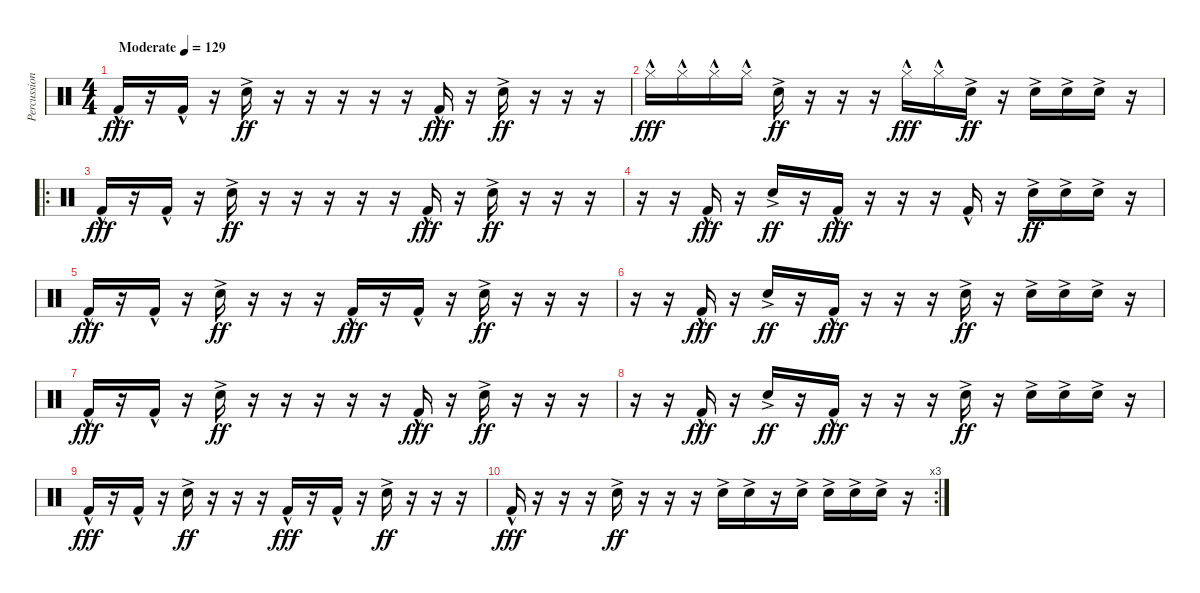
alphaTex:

\track ("Percussion" "Percussion") {instrument percussion}
\staff {score}
\articulation defaults
\ts (4 4)
\tempo (129 "Moderate")
\clef neutral
\ks c "Kick (hit) 2"{hac}.16{dy fff}
r.16 "Kick (hit) 2"{hac}.16 r.16 "Snare (hit) 2"{ac}.16{dy ff} r.16 r.16 r.16 r.16 r.16 "Kick (hit) 2"{hac}.16{dy fff} r.16 "Snare (hit) 2"{ac}.16{dy ff} r.16 r.16 r.16 |
"Hi-Hat (closed)"{hac}.16{dy fff} "Hi-Hat (closed)"{hac}.16 "Hi-Hat (closed)"{hac}.16 "Hi-Hat (closed)"{hac}.16 "Snare (hit) 2"{ac}.16{dy ff} r.16 r.16 r.16 "Hi-Hat (closed)"{hac}.16{dy fff} "Hi-Hat (closed)"{hac}.16 "Snare (hit) 2"{ac}.16{dy ff} r.16 "Snare (hit) 2"{ac}.16 "Snare (hit) 2"{ac}.16 "Snare (hit) 2"{ac}.16 r.16 |
\ro "Kick (hit) 2"{hac}.16{dy fff}
r.16 "Kick (hit) 2"{hac}.16 r.16 "Snare (hit) 2"{ac}.16{dy ff} r.16 r.16 r.16 r.16 r.16 "Kick (hit) 2"{hac}.16{dy fff} r.16 "Snare (hit) 2"{ac}.16{dy ff} r.16 r.16 r.16 |
r.16 r.16 "Kick (hit) 2"{hac}.16{dy fff} r.16 "Snare (hit) 2"{ac}.16{dy ff} r.16 "Kick (hit) 2"{hac}.16{dy fff} r.16 r.16 r.16 "Kick (hit) 2"{hac}.16 r.16 "Snare (hit) 2"{ac}.16{dy ff} "Snare (hit) 2"{ac}.16 "Snare (hit) 2"{ac}.16 r.16 |
"Kick (hit) 2"{hac}.16{dy fff} r.16 "Kick (hit) 2"{hac}.16 r.16 "Snare (hit) 2"{ac}.16{dy ff} r.16 r.16 r.16 "Kick (hit) 2"{hac}.16{dy fff} r.16 "Kick (hit) 2"{hac}.16 r.16 "Snare (hit) 2"{ac}.16{dy ff} r.16 r.16 r.16 |
r.16 r.16 "Kick (hit) 2"{hac}.16{dy fff} r.16 "Snare (hit) 2"{ac}.16{dy ff} r.16 "Kick (hit) 2"{hac}.16{dy fff} r.16 r.16 r.16 "Snare (hit) 2"{ac}.16{dy ff} r.16 "Snare (hit) 2"{ac}.16 "Snare (hit) 2"{ac}.16 "Snare (hit) 2"{ac}.16 r.16 |
"Kick (hit) 2"{hac}.16{dy fff} r.16 "Kick (hit) 2"{hac}.16 r.16 "Snare (hit) 2"{ac}.16{dy ff} r.16 r.16 r.16 r.16 r.16 "Kick (hit) 2"{hac}.16{dy fff} r.16 "Snare (hit) 2"{ac}.16{dy ff} r.16 r.16 r.16 |
r.16 r.16 "Kick (hit) 2"{hac}.16{dy fff} r.16 "Snare (hit) 2"{ac}.16{dy ff} r.16 "Kick (hit) 2"{hac}.16{dy fff} r.16 r.16 r.16 "Snare (hit) 2"{ac}.16{dy ff} r.16 "Snare (hit) 2"{ac}.16 "Snare (hit) 2"{ac}.16 "Snare (hit) 2"{ac}.16 r.16 |
"Kick (hit) 2"{hac}.16{dy fff} r.16 "Kick (hit) 2"{hac}.16 r.16 "Snare (hit) 2"{ac}.16{dy ff} r.16 r.16 r.16 "Kick (hit) 2"{hac}.16{dy fff} r.16 "Kick (hit) 2"{hac}.16 r.16 "Snare (hit) 2"{ac}.16{dy ff} r.16 r.16 r.16 |
\rc 3 "Kick (hit) 2"{hac}.16{dy fff}
r.16 r.16 r.16 "Snare (hit) 2"{ac}.16{dy ff} r.16 r.16 r.16 "Snare (hit) 2"{ac}.16 "Snare (hit) 2"{ac}.16 r.16 "Snare (hit) 2"{ac}.16 "Snare (hit) 2"{ac}.16 "Snare (hit) 2"{ac}.16 "Snare (hit) 2"{ac}.16 r.16
